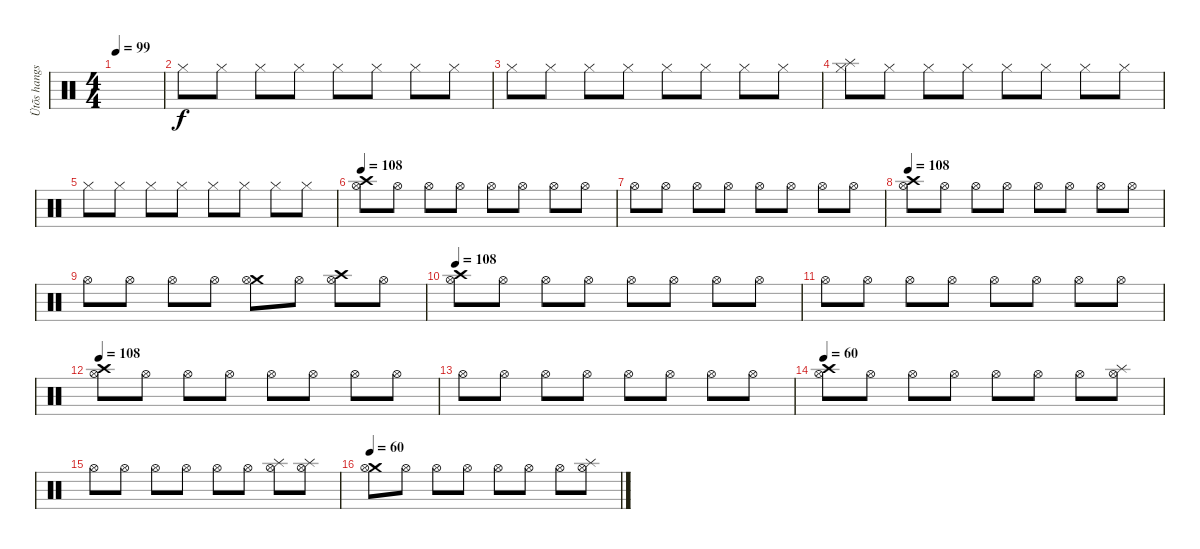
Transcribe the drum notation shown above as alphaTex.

\track ("Ütõs hangszer" "Ütõs hangs") {instrument percussion}
\staff {score}
\articulation defaults
\ts (4 4)
\tempo 99
\clef neutral
\ks c
|
"Hi-Hat (closed)".8 "Hi-Hat (closed)".8 "Hi-Hat (closed)".8 "Hi-Hat (closed)".8 "Hi-Hat (closed)".8 "Hi-Hat (closed)".8 "Hi-Hat (closed)".8 "Hi-Hat (closed)".8 |
"Hi-Hat (closed)".8 "Hi-Hat (closed)".8 "Hi-Hat (closed)".8 "Hi-Hat (closed)".8 "Hi-Hat (closed)".8 "Hi-Hat (closed)".8 "Hi-Hat (closed)".8 "Hi-Hat (closed)".8 |
("Splash (hit)" "Hi-Hat (closed)").8 "Hi-Hat (closed)".8 "Hi-Hat (closed)".8 "Hi-Hat (closed)".8 "Hi-Hat (closed)".8 "Hi-Hat (closed)".8 "Hi-Hat (closed)".8 "Hi-Hat (closed)".8 |
"Hi-Hat (closed)".8 "Hi-Hat (closed)".8 "Hi-Hat (closed)".8 "Hi-Hat (closed)".8 "Hi-Hat (closed)".8 "Hi-Hat (closed)".8 "Hi-Hat (closed)".8 "Hi-Hat (closed)".8 |
\tempo 108
("Crash high (hit)" "Hi-Hat (open)").8 "Hi-Hat (open)".8 "Hi-Hat (open)".8 "Hi-Hat (open)".8 "Hi-Hat (open)".8 "Hi-Hat (open)".8 "Hi-Hat (open)".8 "Hi-Hat (open)".8 |
"Hi-Hat (open)".8 "Hi-Hat (open)".8 "Hi-Hat (open)".8 "Hi-Hat (open)".8 "Hi-Hat (open)".8 "Hi-Hat (open)".8 "Hi-Hat (open)".8 "Hi-Hat (open)".8 |
\tempo 108
("Crash high (hit)" "Hi-Hat (open)").8 "Hi-Hat (open)".8 "Hi-Hat (open)".8 "Hi-Hat (open)".8 "Hi-Hat (open)".8 "Hi-Hat (open)".8 "Hi-Hat (open)".8 "Hi-Hat (open)".8 |
"Hi-Hat (open)".8 "Hi-Hat (open)".8 "Hi-Hat (open)".8 "Hi-Hat (open)".8 ("Crash medium (hit)" "Hi-Hat (open)").8 "Hi-Hat (open)".8 ("Crash high (hit)" "Hi-Hat (open)").8 "Hi-Hat (open)".8 |
\tempo 108
("Crash high (hit)" "Hi-Hat (open)").8 "Hi-Hat (open)".8 "Hi-Hat (open)".8 "Hi-Hat (open)".8 "Hi-Hat (open)".8 "Hi-Hat (open)".8 "Hi-Hat (open)".8 "Hi-Hat (open)".8 |
"Hi-Hat (open)".8 "Hi-Hat (open)".8 "Hi-Hat (open)".8 "Hi-Hat (open)".8 "Hi-Hat (open)".8 "Hi-Hat (open)".8 "Hi-Hat (open)".8 "Hi-Hat (open)".8 |
\tempo 108
("Crash high (hit)" "Hi-Hat (open)").8 "Hi-Hat (open)".8 "Hi-Hat (open)".8 "Hi-Hat (open)".8 "Hi-Hat (open)".8 "Hi-Hat (open)".8 "Hi-Hat (open)".8 "Hi-Hat (open)".8 |
"Hi-Hat (open)".8 "Hi-Hat (open)".8 "Hi-Hat (open)".8 "Hi-Hat (open)".8 "Hi-Hat (open)".8 "Hi-Hat (open)".8 "Hi-Hat (open)".8 "Hi-Hat (open)".8 |
\tempo 60
("Crash high (hit)" "Hi-Hat (open)").8 "Hi-Hat (open)".8 "Hi-Hat (open)".8 "Hi-Hat (open)".8 "Hi-Hat (open)".8 "Hi-Hat (open)".8 "Hi-Hat (open)".8 ("Splash (hit)" "Hi-Hat (open)").8 |
"Hi-Hat (open)".8 "Hi-Hat (open)".8 "Hi-Hat (open)".8 "Hi-Hat (open)".8 "Hi-Hat (open)".8 "Hi-Hat (open)".8 ("Splash (hit)" "Hi-Hat (open)").8 ("Splash (hit)" "Hi-Hat (open)").8 |
\tempo 60
("Crash medium (hit)" "Hi-Hat (open)").8 "Hi-Hat (open)".8 "Hi-Hat (open)".8 "Hi-Hat (open)".8 "Hi-Hat (open)".8 "Hi-Hat (open)".8 "Hi-Hat (open)".8 ("Splash (hit)" "Hi-Hat (open)").8
